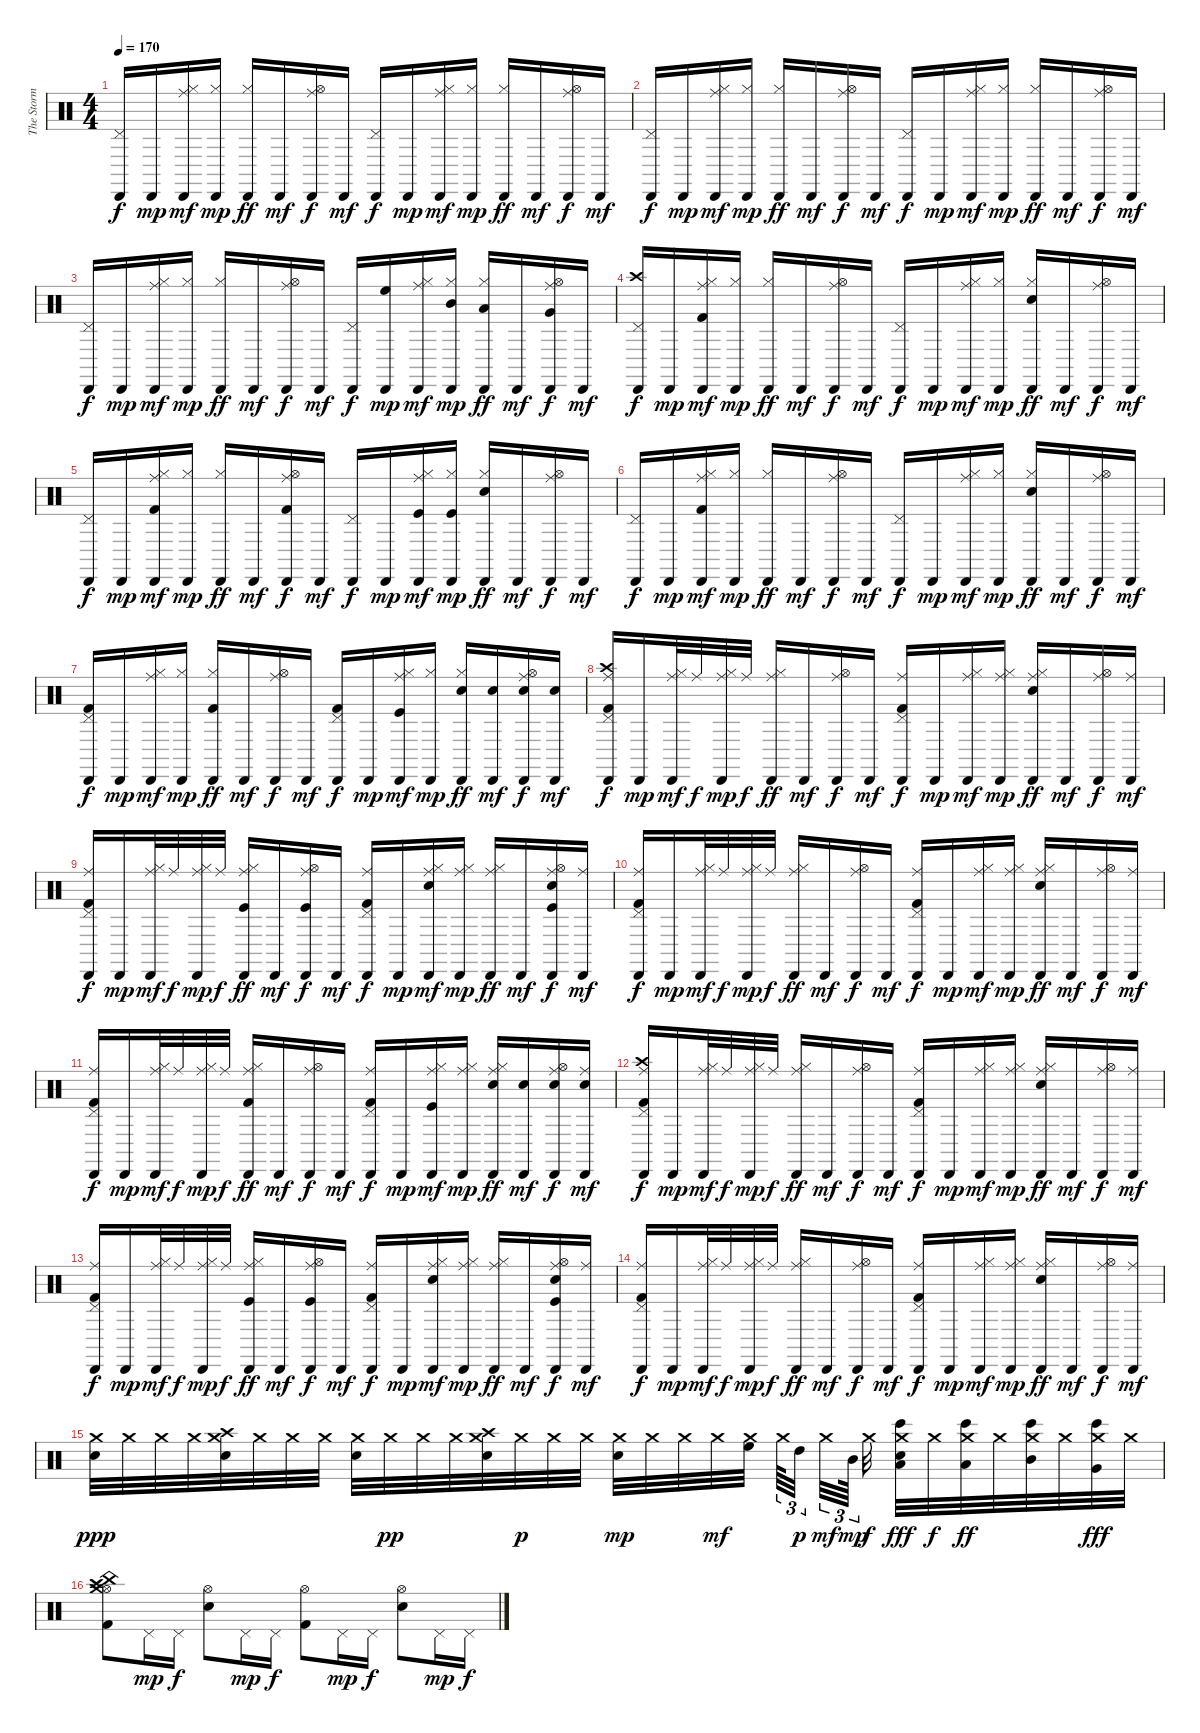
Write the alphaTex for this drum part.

\track ("The Storm" "The Storm") {instrument percussion}
\staff {score}
\articulation defaults
\ts (4 4)
\tempo 170
\clef neutral
\ks c
("Cabasa (hit)" "Pedal Hi-Hat (hit)").16{dy f} "Cabasa (hit)".16{dy mp} ("Cabasa (hit)" "Hi-Hat (closed)" "Ride (middle)").16{dy mf} ("Hi-Hat (closed)" "Cabasa (hit)").16{dy mp} ("Cabasa (hit)" "Hi-Hat (closed)").16{dy ff} "Cabasa (hit)".16{dy mf} ("Cabasa (hit)" "Hi-Hat (open)" "Ride (middle)").16{dy f} "Cabasa (hit)".16{dy mf} ("Cabasa (hit)" "Pedal Hi-Hat (hit)").16{dy f} "Cabasa (hit)".16{dy mp} ("Cabasa (hit)" "Hi-Hat (closed)" "Ride (middle)").16{dy mf} ("Hi-Hat (closed)" "Cabasa (hit)").16{dy mp} ("Cabasa (hit)" "Hi-Hat (closed)").16{dy ff} "Cabasa (hit)".16{dy mf} ("Ride (middle)" "Hi-Hat (open)" "Cabasa (hit)").16{dy f} "Cabasa (hit)".16{dy mf} |
("Cabasa (hit)" "Pedal Hi-Hat (hit)").16{dy f} "Cabasa (hit)".16{dy mp} ("Cabasa (hit)" "Hi-Hat (closed)" "Ride (middle)").16{dy mf} ("Hi-Hat (closed)" "Cabasa (hit)").16{dy mp} ("Cabasa (hit)" "Hi-Hat (closed)").16{dy ff} "Cabasa (hit)".16{dy mf} ("Ride (middle)" "Hi-Hat (open)" "Cabasa (hit)").16{dy f} "Cabasa (hit)".16{dy mf} ("Cabasa (hit)" "Pedal Hi-Hat (hit)").16{dy f} "Cabasa (hit)".16{dy mp} ("Ride (middle)" "Hi-Hat (closed)" "Cabasa (hit)").16{dy mf} ("Cabasa (hit)" "Hi-Hat (closed)").16{dy mp} ("Hi-Hat (closed)" "Cabasa (hit)").16{dy ff} "Cabasa (hit)".16{dy mf} ("Cabasa (hit)" "Hi-Hat (open)" "Ride (middle)").16{dy f} "Cabasa (hit)".16{dy mf} |
("Pedal Hi-Hat (hit)" "Cabasa (hit)").16{dy f} "Cabasa (hit)".16{dy mp} ("Cabasa (hit)" "Hi-Hat (closed)" "Ride (middle)").16{dy mf} ("Hi-Hat (closed)" "Cabasa (hit)").16{dy mp} ("Cabasa (hit)" "Hi-Hat (closed)").16{dy ff} "Cabasa (hit)".16{dy mf} ("Ride (middle)" "Hi-Hat (open)" "Cabasa (hit)").16{dy f} "Cabasa (hit)".16{dy mf} ("Pedal Hi-Hat (hit)" "Cabasa (hit)").16{dy f} ("High Floor Tom (hit)" "Cabasa (hit)").16{dy mp} ("Cabasa (hit)" "Hi-Hat (closed)" "Ride (middle)").16{dy mf} ("Cabasa (hit)" "Hi-Hat (closed)" "Mid Tom (hit)").16{dy mp} ("Hi-Hat (closed)" "Low Tom (hit)" "Cabasa (hit)").16{dy ff} "Cabasa (hit)".16{dy mf} ("Cabasa (hit)" "Hi-Hat (open)" "Ride (middle)" "Very Low Tom (hit)").16{dy f} "Cabasa (hit)".16{dy mf} |
("Crash high (hit)" "Pedal Hi-Hat (hit)" "Cabasa (hit)").16{dy f} "Cabasa (hit)".16{dy mp} ("Cabasa (hit)" "Hi-Hat (closed)" "Ride (middle)" "Kick (hit) 2").16{dy mf} ("Hi-Hat (closed)" "Cabasa (hit)").16{dy mp} ("Cabasa (hit)" "Hi-Hat (closed)").16{dy ff} "Cabasa (hit)".16{dy mf} ("Ride (middle)" "Hi-Hat (open)" "Cabasa (hit)").16{dy f} "Cabasa (hit)".16{dy mf} ("Pedal Hi-Hat (hit)" "Cabasa (hit)").16{dy f} "Cabasa (hit)".16{dy mp} ("Cabasa (hit)" "Hi-Hat (closed)" "Ride (middle)").16{dy mf} ("Cabasa (hit)" "Hi-Hat (closed)").16{dy mp} ("Hi-Hat (closed)" "Electric Snare (hit)" "Cabasa (hit)").16{dy ff} "Cabasa (hit)".16{dy mf} ("Cabasa (hit)" "Hi-Hat (open)" "Ride (middle)").16{dy f} "Cabasa (hit)".16{dy mf} |
("Cabasa (hit)" "Pedal Hi-Hat (hit)").16{dy f} "Cabasa (hit)".16{dy mp} ("Cabasa (hit)" "Hi-Hat (closed)" "Ride (middle)" "Kick (hit) 2").16{dy mf} ("Cabasa (hit)" "Hi-Hat (closed)").16{dy mp} ("Cabasa (hit)" "Hi-Hat (closed)").16{dy ff} "Cabasa (hit)".16{dy mf} ("Cabasa (hit)" "Hi-Hat (open)" "Ride (middle)" "Kick (hit) 2").16{dy f} "Cabasa (hit)".16{dy mf} ("Cabasa (hit)" "Pedal Hi-Hat (hit)").16{dy f} "Cabasa (hit)".16{dy mp} ("Cabasa (hit)" "Hi-Hat (closed)" "Ride (middle)" "Kick (hit)").16{dy mf} ("Hi-Hat (closed)" "Cabasa (hit)" "Kick (hit)").16{dy mp} ("Hi-Hat (closed)" "Cabasa (hit)" "Electric Snare (hit)").16{dy ff} "Cabasa (hit)".16{dy mf} ("Cabasa (hit)" "Hi-Hat (open)" "Ride (middle)").16{dy f} "Cabasa (hit)".16{dy mf} |
("Cabasa (hit)" "Pedal Hi-Hat (hit)").16{dy f} "Cabasa (hit)".16{dy mp} ("Cabasa (hit)" "Hi-Hat (closed)" "Ride (middle)" "Kick (hit) 2").16{dy mf} ("Cabasa (hit)" "Hi-Hat (closed)").16{dy mp} ("Cabasa (hit)" "Hi-Hat (closed)").16{dy ff} "Cabasa (hit)".16{dy mf} ("Ride (middle)" "Hi-Hat (open)" "Cabasa (hit)").16{dy f} "Cabasa (hit)".16{dy mf} ("Cabasa (hit)" "Pedal Hi-Hat (hit)").16{dy f} "Cabasa (hit)".16{dy mp} ("Ride (middle)" "Hi-Hat (closed)" "Cabasa (hit)").16{dy mf} ("Cabasa (hit)" "Hi-Hat (closed)").16{dy mp} ("Hi-Hat (closed)" "Electric Snare (hit)" "Cabasa (hit)").16{dy ff} "Cabasa (hit)".16{dy mf} ("Cabasa (hit)" "Hi-Hat (open)" "Ride (middle)").16{dy f} "Cabasa (hit)".16{dy mf} |
("Kick (hit) 2" "Pedal Hi-Hat (hit)" "Cabasa (hit)").16{dy f} "Cabasa (hit)".16{dy mp} ("Cabasa (hit)" "Hi-Hat (closed)" "Ride (middle)").16{dy mf} ("Cabasa (hit)" "Hi-Hat (closed)").16{dy mp} ("Hi-Hat (closed)" "Kick (hit) 2" "Cabasa (hit)").16{dy ff} "Cabasa (hit)".16{dy mf} ("Cabasa (hit)" "Ride (middle)" "Hi-Hat (open)").16{dy f} "Cabasa (hit)".16{dy mf} ("Kick (hit) 2" "Cabasa (hit)" "Pedal Hi-Hat (hit)").16{dy f} "Cabasa (hit)".16{dy mp} ("Cabasa (hit)" "Hi-Hat (closed)" "Ride (middle)" "Kick (hit)").16{dy mf} ("Cabasa (hit)" "Hi-Hat (closed)").16{dy mp} ("Hi-Hat (closed)" "Cabasa (hit)" "Electric Snare (hit)").16{dy ff} ("Electric Snare (hit)" "Cabasa (hit)").16{dy mf} ("Cabasa (hit)" "Electric Snare (hit)" "Hi-Hat (open)" "Ride (middle)").16{dy f} ("Cabasa (hit)" "Electric Snare (hit)").16{dy mf} |
("Cabasa (hit)" "Kick (hit) 2" "Pedal Hi-Hat (hit)" "Crash high (hit)" "Ride (middle)").16{dy f} "Cabasa (hit)".16{dy mp} ("Hi-Hat (closed)" "Cabasa (hit)" "Ride (middle)").32{dy mf} "Ride (middle)".32{dy f} ("Cabasa (hit)" "Hi-Hat (closed)" "Ride (middle)").32{dy mp} "Ride (middle)".32{dy f} ("Cabasa (hit)" "Hi-Hat (closed)" "Ride (middle)").16{dy ff} "Cabasa (hit)".16{dy mf} ("Cabasa (hit)" "Hi-Hat (open)" "Ride (middle)").16{dy f} "Cabasa (hit)".16{dy mf} ("Cabasa (hit)" "Kick (hit) 2" "Pedal Hi-Hat (hit)" "Ride (middle)").16{dy f} "Cabasa (hit)".16{dy mp} ("Cabasa (hit)" "Hi-Hat (closed)" "Ride (middle)").16{dy mf} ("Cabasa (hit)" "Hi-Hat (closed)" "Ride (middle)").16{dy mp} ("Hi-Hat (closed)" "Electric Snare (hit)" "Cabasa (hit)" "Ride (middle)").16{dy ff} "Cabasa (hit)".16{dy mf} ("Cabasa (hit)" "Hi-Hat (open)" "Ride (middle)").16{dy f} ("Cabasa (hit)" "Ride (middle)").16{dy mf} |
("Kick (hit) 2" "Pedal Hi-Hat (hit)" "Cabasa (hit)" "Ride (middle)").16{dy f} "Cabasa (hit)".16{dy mp} ("Cabasa (hit)" "Hi-Hat (closed)" "Ride (middle)").32{dy mf} "Ride (middle)".32{dy f} ("Cabasa (hit)" "Hi-Hat (closed)" "Ride (middle)").32{dy mp} "Ride (middle)".32{dy f} ("Kick (hit)" "Hi-Hat (closed)" "Cabasa (hit)" "Ride (middle)").16{dy ff} "Cabasa (hit)".16{dy mf} ("Cabasa (hit)" "Hi-Hat (open)" "Kick (hit)" "Ride (middle)").16{dy f} "Cabasa (hit)".16{dy mf} ("Kick (hit) 2" "Cabasa (hit)" "Pedal Hi-Hat (hit)" "Ride (middle)").16{dy f} "Cabasa (hit)".16{dy mp} ("Cabasa (hit)" "Hi-Hat (closed)" "Electric Snare (hit)" "Ride (middle)").16{dy mf} ("Cabasa (hit)" "Hi-Hat (closed)" "Ride (middle)").16{dy mp} ("Hi-Hat (closed)" "Cabasa (hit)" "Ride (middle)").16{dy ff} "Cabasa (hit)".16{dy mf} ("Hi-Hat (open)" "Cabasa (hit)" "Kick (hit)" "Electric Snare (hit)" "Ride (middle)").16{dy f} ("Cabasa (hit)" "Ride (middle)").16{dy mf} |
("Cabasa (hit)" "Kick (hit) 2" "Pedal Hi-Hat (hit)" "Ride (middle)").16{dy f} "Cabasa (hit)".16{dy mp} ("Cabasa (hit)" "Hi-Hat (closed)" "Ride (middle)").32{dy mf} "Ride (middle)".32{dy f} ("Hi-Hat (closed)" "Cabasa (hit)" "Ride (middle)").32{dy mp} "Ride (middle)".32{dy f} ("Cabasa (hit)" "Hi-Hat (closed)" "Ride (middle)").16{dy ff} "Cabasa (hit)".16{dy mf} ("Cabasa (hit)" "Hi-Hat (open)" "Ride (middle)").16{dy f} "Cabasa (hit)".16{dy mf} ("Cabasa (hit)" "Pedal Hi-Hat (hit)" "Kick (hit) 2" "Ride (middle)").16{dy f} "Cabasa (hit)".16{dy mp} ("Cabasa (hit)" "Hi-Hat (closed)" "Ride (middle)").16{dy mf} ("Cabasa (hit)" "Hi-Hat (closed)" "Ride (middle)").16{dy mp} ("Hi-Hat (closed)" "Cabasa (hit)" "Electric Snare (hit)" "Ride (middle)").16{dy ff} "Cabasa (hit)".16{dy mf} ("Hi-Hat (open)" "Cabasa (hit)" "Ride (middle)").16{dy f} ("Cabasa (hit)" "Ride (middle)").16{dy mf} |
("Kick (hit) 2" "Cabasa (hit)" "Pedal Hi-Hat (hit)" "Ride (middle)").16{dy f} "Cabasa (hit)".16{dy mp} ("Cabasa (hit)" "Hi-Hat (closed)" "Ride (middle)").32{dy mf} "Ride (middle)".32{dy f} ("Cabasa (hit)" "Hi-Hat (closed)" "Ride (middle)").32{dy mp} "Ride (middle)".32{dy f} ("Hi-Hat (closed)" "Kick (hit) 2" "Cabasa (hit)" "Ride (middle)").16{dy ff} "Cabasa (hit)".16{dy mf} ("Cabasa (hit)" "Hi-Hat (open)" "Ride (middle)").16{dy f} "Cabasa (hit)".16{dy mf} ("Kick (hit) 2" "Cabasa (hit)" "Pedal Hi-Hat (hit)" "Ride (middle)").16{dy f} "Cabasa (hit)".16{dy mp} ("Cabasa (hit)" "Kick (hit)" "Hi-Hat (closed)" "Ride (middle)").16{dy mf} ("Cabasa (hit)" "Hi-Hat (closed)" "Ride (middle)").16{dy mp} ("Electric Snare (hit)" "Cabasa (hit)" "Hi-Hat (closed)" "Ride (middle)").16{dy ff} ("Cabasa (hit)" "Electric Snare (hit)").16{dy mf} ("Cabasa (hit)" "Electric Snare (hit)" "Hi-Hat (open)" "Ride (middle)").16{dy f} ("Cabasa (hit)" "Electric Snare (hit)" "Ride (middle)").16{dy mf} |
("Cabasa (hit)" "Kick (hit) 2" "Pedal Hi-Hat (hit)" "Crash high (hit)" "Ride (middle)").16{dy f} "Cabasa (hit)".16{dy mp} ("Cabasa (hit)" "Hi-Hat (closed)" "Ride (middle)").32{dy mf} "Ride (middle)".32{dy f} ("Cabasa (hit)" "Hi-Hat (closed)" "Ride (middle)").32{dy mp} "Ride (middle)".32{dy f} ("Cabasa (hit)" "Hi-Hat (closed)" "Ride (middle)").16{dy ff} "Cabasa (hit)".16{dy mf} ("Cabasa (hit)" "Hi-Hat (open)" "Ride (middle)").16{dy f} "Cabasa (hit)".16{dy mf} ("Kick (hit) 2" "Cabasa (hit)" "Pedal Hi-Hat (hit)" "Ride (middle)").16{dy f} "Cabasa (hit)".16{dy mp} ("Cabasa (hit)" "Hi-Hat (closed)" "Ride (middle)").16{dy mf} ("Cabasa (hit)" "Hi-Hat (closed)" "Ride (middle)").16{dy mp} ("Hi-Hat (closed)" "Electric Snare (hit)" "Cabasa (hit)" "Ride (middle)").16{dy ff} "Cabasa (hit)".16{dy mf} ("Cabasa (hit)" "Hi-Hat (open)" "Ride (middle)").16{dy f} ("Cabasa (hit)" "Ride (middle)").16{dy mf} |
("Kick (hit) 2" "Cabasa (hit)" "Pedal Hi-Hat (hit)" "Ride (middle)").16{dy f} "Cabasa (hit)".16{dy mp} ("Cabasa (hit)" "Hi-Hat (closed)" "Ride (middle)").32{dy mf} "Ride (middle)".32{dy f} ("Cabasa (hit)" "Hi-Hat (closed)" "Ride (middle)").32{dy mp} "Ride (middle)".32{dy f} ("Hi-Hat (closed)" "Kick (hit)" "Cabasa (hit)" "Ride (middle)").16{dy ff} "Cabasa (hit)".16{dy mf} ("Cabasa (hit)" "Kick (hit)" "Hi-Hat (open)" "Ride (middle)").16{dy f} "Cabasa (hit)".16{dy mf} ("Kick (hit) 2" "Cabasa (hit)" "Pedal Hi-Hat (hit)" "Ride (middle)").16{dy f} "Cabasa (hit)".16{dy mp} ("Cabasa (hit)" "Electric Snare (hit)" "Hi-Hat (closed)" "Ride (middle)").16{dy mf} ("Cabasa (hit)" "Hi-Hat (closed)" "Ride (middle)").16{dy mp} ("Cabasa (hit)" "Hi-Hat (closed)" "Ride (middle)").16{dy ff} "Cabasa (hit)".16{dy mf} ("Hi-Hat (open)" "Cabasa (hit)" "Kick (hit)" "Electric Snare (hit)" "Ride (middle)").16{dy f} ("Cabasa (hit)" "Ride (middle)").16{dy mf} |
("Kick (hit) 2" "Cabasa (hit)" "Pedal Hi-Hat (hit)" "Ride (middle)").16{dy f} "Cabasa (hit)".16{dy mp} ("Cabasa (hit)" "Hi-Hat (closed)" "Ride (middle)").32{dy mf} "Ride (middle)".32{dy f} ("Cabasa (hit)" "Hi-Hat (closed)" "Ride (middle)").32{dy mp} "Ride (middle)".32{dy f} ("Hi-Hat (closed)" "Cabasa (hit)" "Ride (middle)").16{dy ff} "Cabasa (hit)".16{dy mf} ("Cabasa (hit)" "Hi-Hat (open)" "Ride (middle)").16{dy f} "Cabasa (hit)".16{dy mf} ("Cabasa (hit)" "Pedal Hi-Hat (hit)" "Kick (hit) 2" "Ride (middle)").16{dy f} "Cabasa (hit)".16{dy mp} ("Cabasa (hit)" "Hi-Hat (closed)" "Ride (middle)").16{dy mf} ("Cabasa (hit)" "Hi-Hat (closed)" "Ride (middle)").16{dy mp} ("Electric Snare (hit)" "Hi-Hat (closed)" "Cabasa (hit)" "Ride (middle)").16{dy ff} "Cabasa (hit)".16{dy mf} ("Cabasa (hit)" "Hi-Hat (open)" "Ride (middle)").16{dy f} ("Cabasa (hit)" "Ride (middle)").16{dy mf} |
("Electric Snare (hit)" "Crash medium (hit)").32{dy ppp} "Crash medium (hit)".32 "Crash medium (hit)".32 "Crash medium (hit)".32 ("Crash high (hit)" "Electric Snare (hit)" "Crash medium (hit)").32 "Crash medium (hit)".32 "Crash medium (hit)".32 "Crash medium (hit)".32 ("Electric Snare (hit)" "Crash medium (hit)").32 "Crash medium (hit)".32{dy pp} "Crash medium (hit)".32 "Crash medium (hit)".32 ("Electric Snare (hit)" "Crash high (hit)" "Crash medium (hit)").32 "Crash medium (hit)".32{dy p} "Crash medium (hit)".32 "Crash medium (hit)".32 ("Electric Snare (hit)" "Crash medium (hit)").32{dy mp} "Crash medium (hit)".32 "Crash medium (hit)".32 "Crash medium (hit)".32{dy mf} ("High Floor Tom (hit)" "Crash medium (hit)").32{beam splitsecondary} "Crash medium (hit)".64{tu (3 2)} "High Tom (hit)".32{tu (3 2) dy p beam splitsecondary} "Crash medium (hit)".32{tu (3 2) dy mf} "Mid Tom (hit)".64{tu (3 2) dy mp beam splitsecondary} "Crash medium (hit)".32{dy f} ("Low Tom (hit)" "Electric Snare (hit)" "Bongo High (hit)" "Crash medium (hit)").32{dy fff} "Crash medium (hit)".32{dy f} ("Low Tom (hit)" "Bongo High (hit)" "Crash medium (hit)").32{dy ff} "Crash medium (hit)".32 ("Bongo High (hit)" "Mid Tom (hit)" "Crash medium (hit)").32 "Crash medium (hit)".32 ("Bongo High (hit)" "Very Low Tom (hit)" "Crash medium (hit)").32{dy fff} "Crash medium (hit)".32 |
("Hi-Hat (open)" "China (hit)" "Crash high (hit)" "Kick (hit) 2" "Crash medium (hit)").8 "Pedal Hi-Hat (hit)".16{dy mp} "Pedal Hi-Hat (hit)".16{dy f} ("Electric Snare (hit)" "Hi-Hat (open)").8 "Pedal Hi-Hat (hit)".16{dy mp} "Pedal Hi-Hat (hit)".16{dy f} ("Hi-Hat (open)" "Kick (hit) 2").8 "Pedal Hi-Hat (hit)".16{dy mp} "Pedal Hi-Hat (hit)".16{dy f} ("Hi-Hat (open)" "Electric Snare (hit)").8 "Pedal Hi-Hat (hit)".16{dy mp} "Pedal Hi-Hat (hit)".16{dy f}
